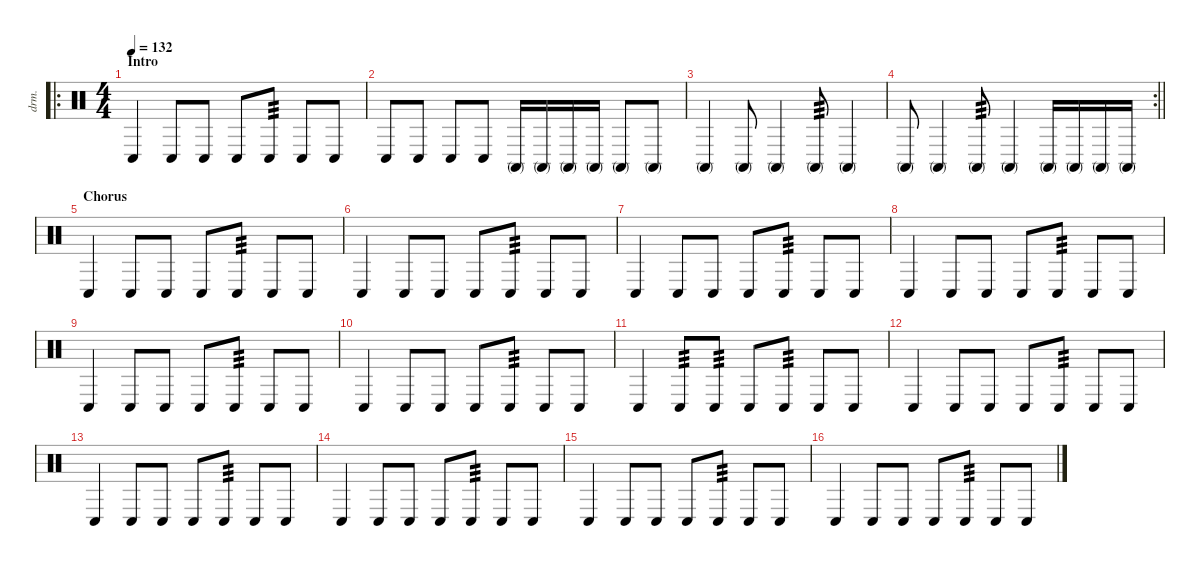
\defaultSystemsLayout 4
\hideDynamics
\bracketExtendMode nobrackets
\otherSystemsTrackNameOrientation horizontal
\track ("Percussion" "drm.") {instrument percussion}
\staff {score}
\articulation defaults
\ro
\ts (4 4)
\beaming (8 2 2 2 2)
\section ("" "Intro")
\tempo 132
\clef neutral
\ks c "Conga low (hit)".4{dy f beam Up} "Conga low (hit)".8{beam Up} "Conga low (hit)".8{beam Up} "Conga low (hit)".8{beam Up} "Conga low (hit)".8{tp 3 beam Up} "Conga low (hit)".8{beam Up} "Conga low (hit)".8{beam Up}
|
"Conga low (hit)".8{beam Up} "Conga low (hit)".8{beam Up} "Conga low (hit)".8{beam Up} "Conga low (hit)".8{beam Up} "Conga high (mute)".16{beam Up} "Conga high (mute)".16{beam Up} "Conga high (mute)".16{beam Up} "Conga high (mute)".16{beam Up} "Conga high (mute)".8{beam Up} "Conga high (mute)".8{beam Up} |
"Conga high (mute)".4{beam Up} "Conga high (mute)".8{beam Up} "Conga high (mute)".4{beam Up} "Conga high (mute)".8{tp 3 beam Up} "Conga high (mute)".4{beam Up} |
\rc 2
\barLineRight lightlight "Conga high (mute)".8{beam Up} "Conga high (mute)".4{beam Up} "Conga high (mute)".8{tp 3 beam Up} "Conga high (mute)".4{beam Up} "Conga high (mute)".16{beam Up} "Conga high (mute)".16{beam Up} "Conga high (mute)".16{beam Up} "Conga high (mute)".16{beam Up}
|
\section ("" "Chorus")
"Conga low (hit)".4{beam Up} "Conga low (hit)".8{beam Up} "Conga low (hit)".8{beam Up} "Conga low (hit)".8{beam Up} "Conga low (hit)".8{tp 3 beam Up} "Conga low (hit)".8{beam Up} "Conga low (hit)".8{beam Up} |
"Conga low (hit)".4{beam Up} "Conga low (hit)".8{beam Up} "Conga low (hit)".8{beam Up} "Conga low (hit)".8{beam Up} "Conga low (hit)".8{tp 3 beam Up} "Conga low (hit)".8{beam Up} "Conga low (hit)".8{beam Up} |
"Conga low (hit)".4{beam Up} "Conga low (hit)".8{beam Up} "Conga low (hit)".8{beam Up} "Conga low (hit)".8{beam Up} "Conga low (hit)".8{tp 3 beam Up} "Conga low (hit)".8{beam Up} "Conga low (hit)".8{beam Up} |
"Conga low (hit)".4{beam Up} "Conga low (hit)".8{beam Up} "Conga low (hit)".8{beam Up} "Conga low (hit)".8{beam Up} "Conga low (hit)".8{tp 3 beam Up} "Conga low (hit)".8{beam Up} "Conga low (hit)".8{beam Up} |
"Conga low (hit)".4{beam Up} "Conga low (hit)".8{beam Up} "Conga low (hit)".8{beam Up} "Conga low (hit)".8{beam Up} "Conga low (hit)".8{tp 3 beam Up} "Conga low (hit)".8{beam Up} "Conga low (hit)".8{beam Up} |
"Conga low (hit)".4{beam Up} "Conga low (hit)".8{beam Up} "Conga low (hit)".8{beam Up} "Conga low (hit)".8{beam Up} "Conga low (hit)".8{tp 3 beam Up} "Conga low (hit)".8{beam Up} "Conga low (hit)".8{beam Up} |
"Conga low (hit)".4{beam Up} "Conga low (hit)".8{tp 3 beam Up} "Conga low (hit)".8{tp 3 beam Up} "Conga low (hit)".8{beam Up} "Conga low (hit)".8{tp 3 beam Up} "Conga low (hit)".8{beam Up} "Conga low (hit)".8{beam Up} |
"Conga low (hit)".4{beam Up} "Conga low (hit)".8{beam Up} "Conga low (hit)".8{beam Up} "Conga low (hit)".8{beam Up} "Conga low (hit)".8{tp 3 beam Up} "Conga low (hit)".8{beam Up} "Conga low (hit)".8{beam Up} |
"Conga low (hit)".4{beam Up} "Conga low (hit)".8{beam Up} "Conga low (hit)".8{beam Up} "Conga low (hit)".8{beam Up} "Conga low (hit)".8{tp 3 beam Up} "Conga low (hit)".8{beam Up} "Conga low (hit)".8{beam Up} |
"Conga low (hit)".4{beam Up} "Conga low (hit)".8{beam Up} "Conga low (hit)".8{beam Up} "Conga low (hit)".8{beam Up} "Conga low (hit)".8{tp 3 beam Up} "Conga low (hit)".8{beam Up} "Conga low (hit)".8{beam Up} |
"Conga low (hit)".4{beam Up} "Conga low (hit)".8{beam Up} "Conga low (hit)".8{beam Up} "Conga low (hit)".8{beam Up} "Conga low (hit)".8{tp 3 beam Up} "Conga low (hit)".8{beam Up} "Conga low (hit)".8{beam Up} |
"Conga low (hit)".4{beam Up} "Conga low (hit)".8{beam Up} "Conga low (hit)".8{beam Up} "Conga low (hit)".8{beam Up} "Conga low (hit)".8{tp 3 beam Up} "Conga low (hit)".8{beam Up} "Conga low (hit)".8{beam Up}
